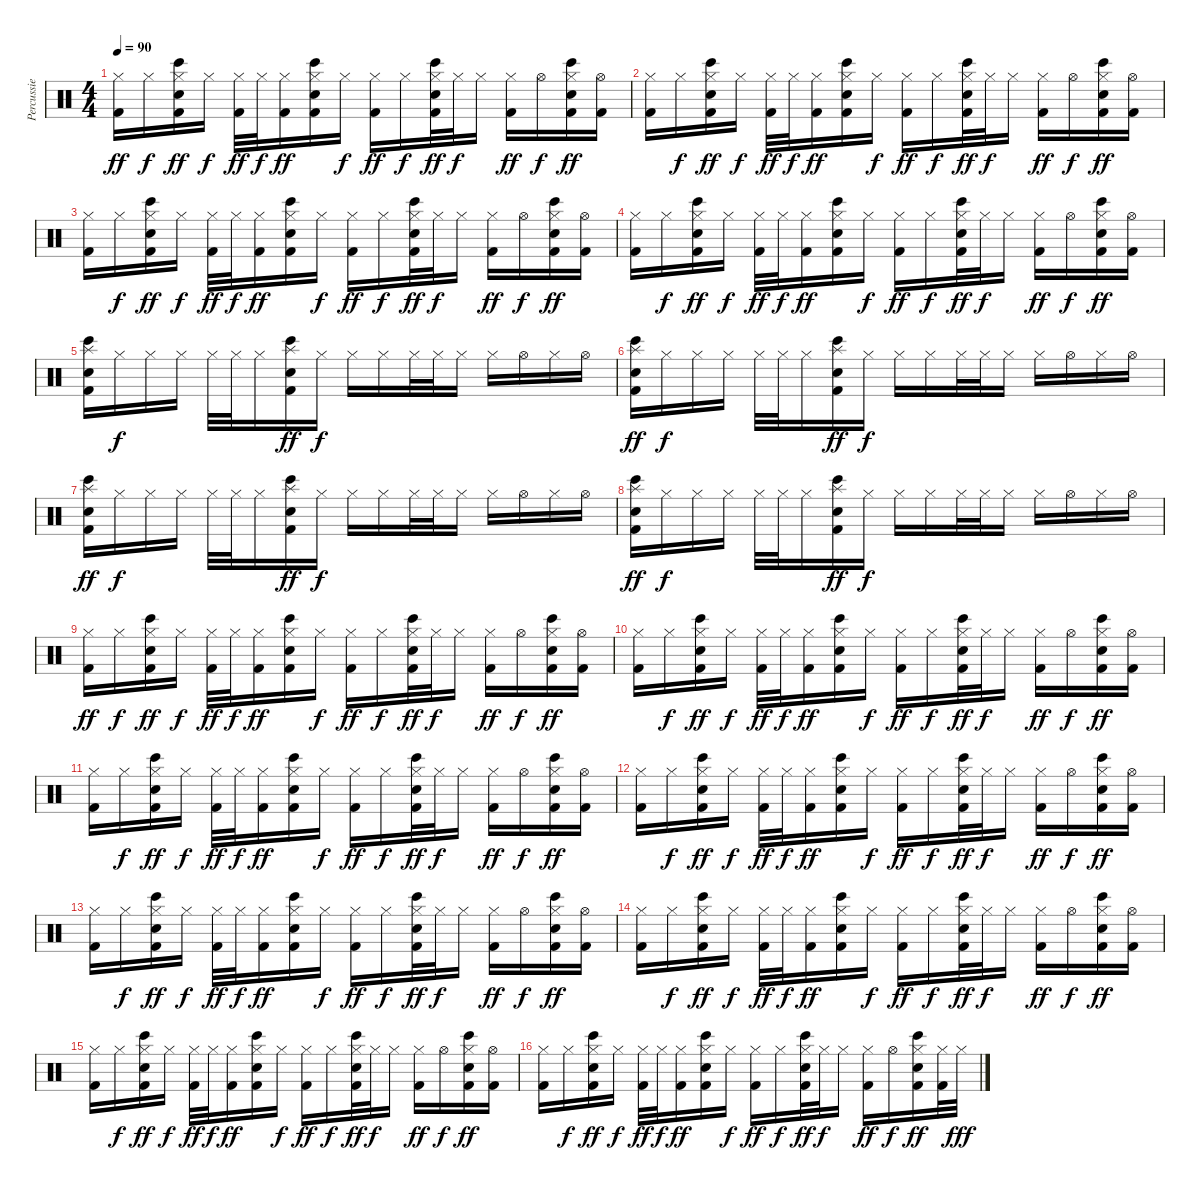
\track ("Percussie" "Percussie") {instrument percussion}
\staff {score}
\articulation defaults
\ts (4 4)
\tempo 90
\clef neutral
\ks c
("Hi-Hat (closed)" "Kick (hit) 2").16{dy ff} "Hi-Hat (closed)".16{dy f} ("Hi-Hat (closed)" "Electric Snare (hit)" "Bongo High (hit)" "Kick (hit) 2").16{dy ff} "Hi-Hat (closed)".16{dy f} ("Hi-Hat (closed)" "Kick (hit) 2").32{dy ff} "Hi-Hat (closed)".32{dy f} ("Hi-Hat (closed)" "Kick (hit) 2").16{dy ff} ("Hi-Hat (closed)" "Electric Snare (hit)" "Bongo High (hit)" "Kick (hit) 2").16 "Hi-Hat (closed)".16{dy f} ("Hi-Hat (closed)" "Kick (hit) 2").16{dy ff} "Hi-Hat (closed)".16{dy f} ("Hi-Hat (closed)" "Electric Snare (hit)" "Bongo High (hit)" "Kick (hit) 2").32{dy ff} "Hi-Hat (closed)".32{dy f} "Hi-Hat (closed)".16 ("Hi-Hat (closed)" "Kick (hit) 2").16{dy ff} "Hi-Hat (open)".16{dy f} ("Hi-Hat (closed)" "Electric Snare (hit)" "Bongo High (hit)" "Kick (hit) 2").16{dy ff} ("Hi-Hat (open)" "Kick (hit) 2").16 |
("Hi-Hat (closed)" "Kick (hit) 2").16 "Hi-Hat (closed)".16{dy f} ("Hi-Hat (closed)" "Electric Snare (hit)" "Bongo High (hit)" "Kick (hit) 2").16{dy ff} "Hi-Hat (closed)".16{dy f} ("Hi-Hat (closed)" "Kick (hit) 2").32{dy ff} "Hi-Hat (closed)".32{dy f} ("Hi-Hat (closed)" "Kick (hit) 2").16{dy ff} ("Hi-Hat (closed)" "Electric Snare (hit)" "Bongo High (hit)" "Kick (hit) 2").16 "Hi-Hat (closed)".16{dy f} ("Hi-Hat (closed)" "Kick (hit) 2").16{dy ff} "Hi-Hat (closed)".16{dy f} ("Hi-Hat (closed)" "Electric Snare (hit)" "Bongo High (hit)" "Kick (hit) 2").32{dy ff} "Hi-Hat (closed)".32{dy f} "Hi-Hat (closed)".16 ("Hi-Hat (closed)" "Kick (hit) 2").16{dy ff} "Hi-Hat (open)".16{dy f} ("Hi-Hat (closed)" "Electric Snare (hit)" "Bongo High (hit)" "Kick (hit) 2").16{dy ff} ("Hi-Hat (open)" "Kick (hit) 2").16 |
("Hi-Hat (closed)" "Kick (hit) 2").16 "Hi-Hat (closed)".16{dy f} ("Hi-Hat (closed)" "Electric Snare (hit)" "Bongo High (hit)" "Kick (hit) 2").16{dy ff} "Hi-Hat (closed)".16{dy f} ("Hi-Hat (closed)" "Kick (hit) 2").32{dy ff} "Hi-Hat (closed)".32{dy f} ("Hi-Hat (closed)" "Kick (hit) 2").16{dy ff} ("Hi-Hat (closed)" "Electric Snare (hit)" "Bongo High (hit)" "Kick (hit) 2").16 "Hi-Hat (closed)".16{dy f} ("Hi-Hat (closed)" "Kick (hit) 2").16{dy ff} "Hi-Hat (closed)".16{dy f} ("Hi-Hat (closed)" "Electric Snare (hit)" "Bongo High (hit)" "Kick (hit) 2").32{dy ff} "Hi-Hat (closed)".32{dy f} "Hi-Hat (closed)".16 ("Hi-Hat (closed)" "Kick (hit) 2").16{dy ff} "Hi-Hat (open)".16{dy f} ("Hi-Hat (closed)" "Electric Snare (hit)" "Bongo High (hit)" "Kick (hit) 2").16{dy ff} ("Hi-Hat (open)" "Kick (hit) 2").16 |
("Hi-Hat (closed)" "Kick (hit) 2").16 "Hi-Hat (closed)".16{dy f} ("Hi-Hat (closed)" "Electric Snare (hit)" "Bongo High (hit)" "Kick (hit) 2").16{dy ff} "Hi-Hat (closed)".16{dy f} ("Hi-Hat (closed)" "Kick (hit) 2").32{dy ff} "Hi-Hat (closed)".32{dy f} ("Hi-Hat (closed)" "Kick (hit) 2").16{dy ff} ("Hi-Hat (closed)" "Electric Snare (hit)" "Bongo High (hit)" "Kick (hit) 2").16 "Hi-Hat (closed)".16{dy f} ("Hi-Hat (closed)" "Kick (hit) 2").16{dy ff} "Hi-Hat (closed)".16{dy f} ("Hi-Hat (closed)" "Electric Snare (hit)" "Bongo High (hit)" "Kick (hit) 2").32{dy ff} "Hi-Hat (closed)".32{dy f} "Hi-Hat (closed)".16 ("Hi-Hat (closed)" "Kick (hit) 2").16{dy ff} "Hi-Hat (open)".16{dy f} ("Hi-Hat (closed)" "Electric Snare (hit)" "Bongo High (hit)" "Kick (hit) 2").16{dy ff} ("Hi-Hat (open)" "Kick (hit) 2").16 |
("Splash (hit)" "Electric Snare (hit)" "Bongo High (hit)" "Kick (hit) 2").16 "Hi-Hat (closed)".16{dy f} "Hi-Hat (closed)".16 "Hi-Hat (closed)".16 "Hi-Hat (closed)".32 "Hi-Hat (closed)".32 "Hi-Hat (closed)".16 ("Splash (hit)" "Electric Snare (hit)" "Bongo High (hit)" "Kick (hit) 2").16{dy ff} "Hi-Hat (closed)".16{dy f} "Hi-Hat (closed)".16 "Hi-Hat (closed)".16 "Hi-Hat (closed)".32 "Hi-Hat (closed)".32 "Hi-Hat (closed)".16 "Hi-Hat (closed)".16 "Hi-Hat (open)".16 "Hi-Hat (closed)".16 "Hi-Hat (open)".16 |
("Splash (hit)" "Electric Snare (hit)" "Bongo High (hit)" "Kick (hit) 2").16{dy ff} "Hi-Hat (closed)".16{dy f} "Hi-Hat (closed)".16 "Hi-Hat (closed)".16 "Hi-Hat (closed)".32 "Hi-Hat (closed)".32 "Hi-Hat (closed)".16 ("Splash (hit)" "Electric Snare (hit)" "Bongo High (hit)" "Kick (hit) 2").16{dy ff} "Hi-Hat (closed)".16{dy f} "Hi-Hat (closed)".16 "Hi-Hat (closed)".16 "Hi-Hat (closed)".32 "Hi-Hat (closed)".32 "Hi-Hat (closed)".16 "Hi-Hat (closed)".16 "Hi-Hat (open)".16 "Hi-Hat (closed)".16 "Hi-Hat (open)".16 |
("Splash (hit)" "Electric Snare (hit)" "Bongo High (hit)" "Kick (hit) 2").16{dy ff} "Hi-Hat (closed)".16{dy f} "Hi-Hat (closed)".16 "Hi-Hat (closed)".16 "Hi-Hat (closed)".32 "Hi-Hat (closed)".32 "Hi-Hat (closed)".16 ("Splash (hit)" "Electric Snare (hit)" "Bongo High (hit)" "Kick (hit) 2").16{dy ff} "Hi-Hat (closed)".16{dy f} "Hi-Hat (closed)".16 "Hi-Hat (closed)".16 "Hi-Hat (closed)".32 "Hi-Hat (closed)".32 "Hi-Hat (closed)".16 "Hi-Hat (closed)".16 "Hi-Hat (open)".16 "Hi-Hat (closed)".16 "Hi-Hat (open)".16 |
("Splash (hit)" "Electric Snare (hit)" "Bongo High (hit)" "Kick (hit) 2").16{dy ff} "Hi-Hat (closed)".16{dy f} "Hi-Hat (closed)".16 "Hi-Hat (closed)".16 "Hi-Hat (closed)".32 "Hi-Hat (closed)".32 "Hi-Hat (closed)".16 ("Splash (hit)" "Electric Snare (hit)" "Bongo High (hit)" "Kick (hit) 2").16{dy ff} "Hi-Hat (closed)".16{dy f} "Hi-Hat (closed)".16 "Hi-Hat (closed)".16 "Hi-Hat (closed)".32 "Hi-Hat (closed)".32 "Hi-Hat (closed)".16 "Hi-Hat (closed)".16 "Hi-Hat (open)".16 "Hi-Hat (closed)".16 "Hi-Hat (open)".16 |
("Hi-Hat (closed)" "Kick (hit) 2").16{dy ff} "Hi-Hat (closed)".16{dy f} ("Hi-Hat (closed)" "Electric Snare (hit)" "Bongo High (hit)" "Kick (hit) 2").16{dy ff} "Hi-Hat (closed)".16{dy f} ("Hi-Hat (closed)" "Kick (hit) 2").32{dy ff} "Hi-Hat (closed)".32{dy f} ("Hi-Hat (closed)" "Kick (hit) 2").16{dy ff} ("Hi-Hat (closed)" "Electric Snare (hit)" "Bongo High (hit)" "Kick (hit) 2").16 "Hi-Hat (closed)".16{dy f} ("Hi-Hat (closed)" "Kick (hit) 2").16{dy ff} "Hi-Hat (closed)".16{dy f} ("Hi-Hat (closed)" "Electric Snare (hit)" "Bongo High (hit)" "Kick (hit) 2").32{dy ff} "Hi-Hat (closed)".32{dy f} "Hi-Hat (closed)".16 ("Hi-Hat (closed)" "Kick (hit) 2").16{dy ff} "Hi-Hat (open)".16{dy f} ("Hi-Hat (closed)" "Electric Snare (hit)" "Bongo High (hit)" "Kick (hit) 2").16{dy ff} ("Hi-Hat (open)" "Kick (hit) 2").16 |
("Hi-Hat (closed)" "Kick (hit) 2").16 "Hi-Hat (closed)".16{dy f} ("Hi-Hat (closed)" "Electric Snare (hit)" "Bongo High (hit)" "Kick (hit) 2").16{dy ff} "Hi-Hat (closed)".16{dy f} ("Hi-Hat (closed)" "Kick (hit) 2").32{dy ff} "Hi-Hat (closed)".32{dy f} ("Hi-Hat (closed)" "Kick (hit) 2").16{dy ff} ("Hi-Hat (closed)" "Electric Snare (hit)" "Bongo High (hit)" "Kick (hit) 2").16 "Hi-Hat (closed)".16{dy f} ("Hi-Hat (closed)" "Kick (hit) 2").16{dy ff} "Hi-Hat (closed)".16{dy f} ("Hi-Hat (closed)" "Electric Snare (hit)" "Bongo High (hit)" "Kick (hit) 2").32{dy ff} "Hi-Hat (closed)".32{dy f} "Hi-Hat (closed)".16 ("Hi-Hat (closed)" "Kick (hit) 2").16{dy ff} "Hi-Hat (open)".16{dy f} ("Hi-Hat (closed)" "Electric Snare (hit)" "Bongo High (hit)" "Kick (hit) 2").16{dy ff} ("Hi-Hat (open)" "Kick (hit) 2").16 |
("Hi-Hat (closed)" "Kick (hit) 2").16 "Hi-Hat (closed)".16{dy f} ("Hi-Hat (closed)" "Electric Snare (hit)" "Bongo High (hit)" "Kick (hit) 2").16{dy ff} "Hi-Hat (closed)".16{dy f} ("Hi-Hat (closed)" "Kick (hit) 2").32{dy ff} "Hi-Hat (closed)".32{dy f} ("Hi-Hat (closed)" "Kick (hit) 2").16{dy ff} ("Hi-Hat (closed)" "Electric Snare (hit)" "Bongo High (hit)" "Kick (hit) 2").16 "Hi-Hat (closed)".16{dy f} ("Hi-Hat (closed)" "Kick (hit) 2").16{dy ff} "Hi-Hat (closed)".16{dy f} ("Hi-Hat (closed)" "Electric Snare (hit)" "Bongo High (hit)" "Kick (hit) 2").32{dy ff} "Hi-Hat (closed)".32{dy f} "Hi-Hat (closed)".16 ("Hi-Hat (closed)" "Kick (hit) 2").16{dy ff} "Hi-Hat (open)".16{dy f} ("Hi-Hat (closed)" "Electric Snare (hit)" "Bongo High (hit)" "Kick (hit) 2").16{dy ff} ("Hi-Hat (open)" "Kick (hit) 2").16 |
("Hi-Hat (closed)" "Kick (hit) 2").16 "Hi-Hat (closed)".16{dy f} ("Hi-Hat (closed)" "Electric Snare (hit)" "Bongo High (hit)" "Kick (hit) 2").16{dy ff} "Hi-Hat (closed)".16{dy f} ("Hi-Hat (closed)" "Kick (hit) 2").32{dy ff} "Hi-Hat (closed)".32{dy f} ("Hi-Hat (closed)" "Kick (hit) 2").16{dy ff} ("Hi-Hat (closed)" "Electric Snare (hit)" "Bongo High (hit)" "Kick (hit) 2").16 "Hi-Hat (closed)".16{dy f} ("Hi-Hat (closed)" "Kick (hit) 2").16{dy ff} "Hi-Hat (closed)".16{dy f} ("Hi-Hat (closed)" "Electric Snare (hit)" "Bongo High (hit)" "Kick (hit) 2").32{dy ff} "Hi-Hat (closed)".32{dy f} "Hi-Hat (closed)".16 ("Hi-Hat (closed)" "Kick (hit) 2").16{dy ff} "Hi-Hat (open)".16{dy f} ("Hi-Hat (closed)" "Electric Snare (hit)" "Bongo High (hit)" "Kick (hit) 2").16{dy ff} ("Hi-Hat (open)" "Kick (hit) 2").16 |
("Hi-Hat (closed)" "Kick (hit) 2").16 "Hi-Hat (closed)".16{dy f} ("Hi-Hat (closed)" "Electric Snare (hit)" "Bongo High (hit)" "Kick (hit) 2").16{dy ff} "Hi-Hat (closed)".16{dy f} ("Hi-Hat (closed)" "Kick (hit) 2").32{dy ff} "Hi-Hat (closed)".32{dy f} ("Hi-Hat (closed)" "Kick (hit) 2").16{dy ff} ("Hi-Hat (closed)" "Electric Snare (hit)" "Bongo High (hit)" "Kick (hit) 2").16 "Hi-Hat (closed)".16{dy f} ("Hi-Hat (closed)" "Kick (hit) 2").16{dy ff} "Hi-Hat (closed)".16{dy f} ("Hi-Hat (closed)" "Electric Snare (hit)" "Bongo High (hit)" "Kick (hit) 2").32{dy ff} "Hi-Hat (closed)".32{dy f} "Hi-Hat (closed)".16 ("Hi-Hat (closed)" "Kick (hit) 2").16{dy ff} "Hi-Hat (open)".16{dy f} ("Hi-Hat (closed)" "Electric Snare (hit)" "Bongo High (hit)" "Kick (hit) 2").16{dy ff} ("Hi-Hat (open)" "Kick (hit) 2").16 |
("Hi-Hat (closed)" "Kick (hit) 2").16 "Hi-Hat (closed)".16{dy f} ("Hi-Hat (closed)" "Electric Snare (hit)" "Bongo High (hit)" "Kick (hit) 2").16{dy ff} "Hi-Hat (closed)".16{dy f} ("Hi-Hat (closed)" "Kick (hit) 2").32{dy ff} "Hi-Hat (closed)".32{dy f} ("Hi-Hat (closed)" "Kick (hit) 2").16{dy ff} ("Hi-Hat (closed)" "Electric Snare (hit)" "Bongo High (hit)" "Kick (hit) 2").16 "Hi-Hat (closed)".16{dy f} ("Hi-Hat (closed)" "Kick (hit) 2").16{dy ff} "Hi-Hat (closed)".16{dy f} ("Hi-Hat (closed)" "Electric Snare (hit)" "Bongo High (hit)" "Kick (hit) 2").32{dy ff} "Hi-Hat (closed)".32{dy f} "Hi-Hat (closed)".16 ("Hi-Hat (closed)" "Kick (hit) 2").16{dy ff} "Hi-Hat (open)".16{dy f} ("Hi-Hat (closed)" "Electric Snare (hit)" "Bongo High (hit)" "Kick (hit) 2").16{dy ff} ("Hi-Hat (open)" "Kick (hit) 2").16 |
("Hi-Hat (closed)" "Kick (hit) 2").16 "Hi-Hat (closed)".16{dy f} ("Hi-Hat (closed)" "Electric Snare (hit)" "Bongo High (hit)" "Kick (hit) 2").16{dy ff} "Hi-Hat (closed)".16{dy f} ("Hi-Hat (closed)" "Kick (hit) 2").32{dy ff} "Hi-Hat (closed)".32{dy f} ("Hi-Hat (closed)" "Kick (hit) 2").16{dy ff} ("Hi-Hat (closed)" "Electric Snare (hit)" "Bongo High (hit)" "Kick (hit) 2").16 "Hi-Hat (closed)".16{dy f} ("Hi-Hat (closed)" "Kick (hit) 2").16{dy ff} "Hi-Hat (closed)".16{dy f} ("Hi-Hat (closed)" "Electric Snare (hit)" "Bongo High (hit)" "Kick (hit) 2").32{dy ff} "Hi-Hat (closed)".32{dy f} "Hi-Hat (closed)".16 ("Hi-Hat (closed)" "Kick (hit) 2").16{dy ff} "Hi-Hat (open)".16{dy f} ("Hi-Hat (closed)" "Electric Snare (hit)" "Bongo High (hit)" "Kick (hit) 2").16{dy ff} ("Hi-Hat (open)" "Kick (hit) 2").16 |
("Hi-Hat (closed)" "Kick (hit) 2").16 "Hi-Hat (closed)".16{dy f} ("Hi-Hat (closed)" "Electric Snare (hit)" "Bongo High (hit)" "Kick (hit) 2").16{dy ff} "Hi-Hat (closed)".16{dy f} ("Hi-Hat (closed)" "Kick (hit) 2").32{dy ff} "Hi-Hat (closed)".32{dy f} ("Hi-Hat (closed)" "Kick (hit) 2").16{dy ff} ("Hi-Hat (closed)" "Electric Snare (hit)" "Bongo High (hit)" "Kick (hit) 2").16 "Hi-Hat (closed)".16{dy f} ("Hi-Hat (closed)" "Kick (hit) 2").16{dy ff} "Hi-Hat (closed)".16{dy f} ("Hi-Hat (closed)" "Electric Snare (hit)" "Bongo High (hit)" "Kick (hit) 2").32{dy ff} "Hi-Hat (closed)".32{dy f} "Hi-Hat (closed)".16 ("Hi-Hat (closed)" "Kick (hit) 2").16{dy ff} "Hi-Hat (open)".16{dy f} ("Hi-Hat (closed)" "Electric Snare (hit)" "Bongo High (hit)" "Kick (hit) 2").16{dy ff} ("Hi-Hat (closed)" "Kick (hit) 2").32 "Hi-Hat (closed)".32{dy fff}
